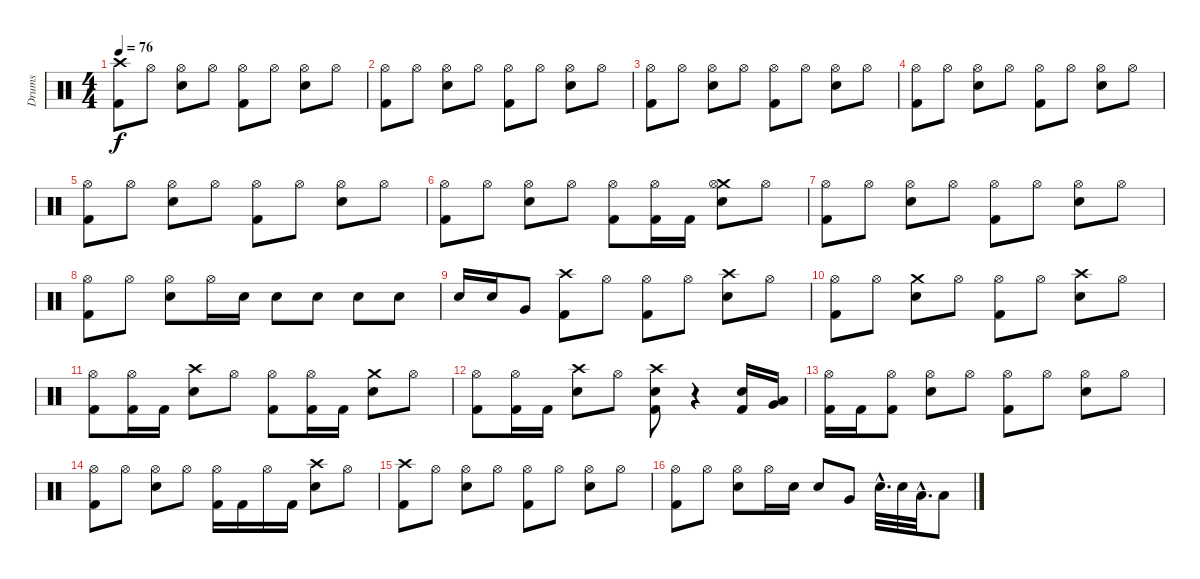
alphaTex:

\track ("Drums" "Drums") {instrument percussion}
\staff {score}
\articulation defaults
\ts (4 4)
\tempo 76
\clef neutral
\ks c
("Crash high (hit)" "Kick (hit) 2").8{dy f} "Hi-Hat (open)".8 ("Snare (hit) 2" "Hi-Hat (open)").8 "Hi-Hat (open)".8 ("Kick (hit) 2" "Hi-Hat (open)").8 "Hi-Hat (open)".8 ("Snare (hit) 2" "Hi-Hat (open)").8 "Hi-Hat (open)".8 |
("Kick (hit) 2" "Hi-Hat (open)").8 "Hi-Hat (open)".8 ("Snare (hit) 2" "Hi-Hat (open)").8 "Hi-Hat (open)".8 ("Kick (hit) 2" "Hi-Hat (open)").8 "Hi-Hat (open)".8 ("Snare (hit) 2" "Hi-Hat (open)").8 "Hi-Hat (open)".8 |
("Kick (hit) 2" "Hi-Hat (open)").8 "Hi-Hat (open)".8 ("Hi-Hat (open)" "Snare (hit) 2").8 "Hi-Hat (open)".8 ("Hi-Hat (open)" "Kick (hit) 2").8 "Hi-Hat (open)".8 ("Snare (hit) 2" "Hi-Hat (open)").8 "Hi-Hat (open)".8 |
("Kick (hit) 2" "Hi-Hat (open)").8 "Hi-Hat (open)".8 ("Snare (hit) 2" "Hi-Hat (open)").8 "Hi-Hat (open)".8 ("Kick (hit) 2" "Hi-Hat (open)").8 "Hi-Hat (open)".8 ("Snare (hit) 2" "Hi-Hat (open)").8 "Hi-Hat (open)".8 |
("Kick (hit) 2" "Hi-Hat (open)").8 "Hi-Hat (open)".8 ("Snare (hit) 2" "Hi-Hat (open)").8 "Hi-Hat (open)".8 ("Kick (hit) 2" "Hi-Hat (open)").8 "Hi-Hat (open)".8 ("Snare (hit) 2" "Hi-Hat (open)").8 "Hi-Hat (open)".8 |
("Kick (hit) 2" "Hi-Hat (open)").8 "Hi-Hat (open)".8 ("Snare (hit) 2" "Hi-Hat (open)").8 "Hi-Hat (open)".8 ("Kick (hit) 2" "Hi-Hat (open)").8 ("Kick (hit) 2" "Hi-Hat (open)").16 "Kick (hit) 2".16 ("Crash medium (hit)" "Hi-Hat (open)" "Snare (hit) 2").8 "Hi-Hat (open)".8 |
("Kick (hit) 2" "Hi-Hat (open)").8 "Hi-Hat (open)".8 ("Snare (hit) 2" "Hi-Hat (open)").8 "Hi-Hat (open)".8 ("Kick (hit) 2" "Hi-Hat (open)").8 "Hi-Hat (open)".8 ("Snare (hit) 2" "Hi-Hat (open)").8 "Hi-Hat (open)".8 |
("Hi-Hat (open)" "Kick (hit) 2").8 "Hi-Hat (open)".8 ("Hi-Hat (open)" "Snare (hit) 2").8 "Hi-Hat (open)".16 "Snare (hit) 2".16 "Snare (hit) 2".8 "Snare (hit) 2".8 "Snare (hit) 2".8 "Snare (hit) 2".8 |
"Snare (hit) 2".16 "Snare (hit) 2".16 "Very Low Tom (hit)".8 ("Crash high (hit)" "Kick (hit) 2").8 "Hi-Hat (open)".8 ("Kick (hit) 2" "Hi-Hat (open)").8 "Hi-Hat (open)".8 ("Crash high (hit)" "Snare (hit) 2").8 "Hi-Hat (open)".8 |
("Kick (hit) 2" "Hi-Hat (open)").8 "Hi-Hat (open)".8 ("Snare (hit) 2" "Crash medium (hit)").8 "Hi-Hat (open)".8 ("Kick (hit) 2" "Hi-Hat (open)").8 "Hi-Hat (open)".8 ("Crash high (hit)" "Snare (hit) 2").8 "Hi-Hat (open)".8 |
("Kick (hit) 2" "Hi-Hat (open)").8 ("Hi-Hat (open)" "Kick (hit) 2").16 "Kick (hit) 2".16 ("Crash high (hit)" "Snare (hit) 2").8 "Hi-Hat (open)".8 ("Kick (hit) 2" "Hi-Hat (open)").8 ("Hi-Hat (open)" "Kick (hit) 2").16 "Kick (hit) 2".16 ("Snare (hit) 2" "Crash medium (hit)").8 "Hi-Hat (open)".8 |
("Kick (hit) 2" "Hi-Hat (open)").8 ("Hi-Hat (open)" "Kick (hit) 2").16 "Kick (hit) 2".16 ("Crash high (hit)" "Snare (hit) 2").8 "Hi-Hat (open)".8 ("Snare (hit) 2" "Crash high (hit)" "Kick (hit) 2").8 r.4 ("Kick (hit) 2" "Snare (hit) 2").16 ("Very Low Tom (hit)" "Low Tom (hit)").16 |
("Hi-Hat (open)" "Kick (hit) 2").16 "Kick (hit) 2".16 ("Kick (hit) 2" "Hi-Hat (open)").8 ("Snare (hit) 2" "Hi-Hat (open)").8 "Hi-Hat (open)".8 ("Hi-Hat (open)" "Kick (hit) 2").8 "Hi-Hat (open)".8 ("Hi-Hat (open)" "Snare (hit) 2").8 "Hi-Hat (open)".8 |
("Hi-Hat (open)" "Kick (hit) 2").8 "Hi-Hat (open)".8 ("Snare (hit) 2" "Hi-Hat (open)").8 "Hi-Hat (open)".8 ("Hi-Hat (open)" "Kick (hit) 2").16 "Kick (hit) 2".16 "Hi-Hat (open)".16 "Kick (hit) 2".16 ("Crash high (hit)" "Snare (hit) 2").8 "Hi-Hat (open)".8 |
("Kick (hit) 2" "Crash high (hit)").8 "Hi-Hat (open)".8 ("Snare (hit) 2" "Hi-Hat (open)").8 "Hi-Hat (open)".8 ("Kick (hit) 2" "Hi-Hat (open)").8 "Hi-Hat (open)".8 ("Snare (hit) 2" "Hi-Hat (open)").8 "Hi-Hat (open)".8 |
("Kick (hit) 2" "Hi-Hat (open)").8 "Hi-Hat (open)".8 ("Snare (hit) 2" "Hi-Hat (open)").8 "Hi-Hat (open)".16 "Snare (hit) 2".16 "Snare (hit) 2".8 "Very Low Tom (hit)".8 "Snare (hit) 2"{hac}.32{d} "Snare (hit) 2".32 "Low Tom (hit)"{hac}.32{d} "Low Floor Tom (hit)".8
